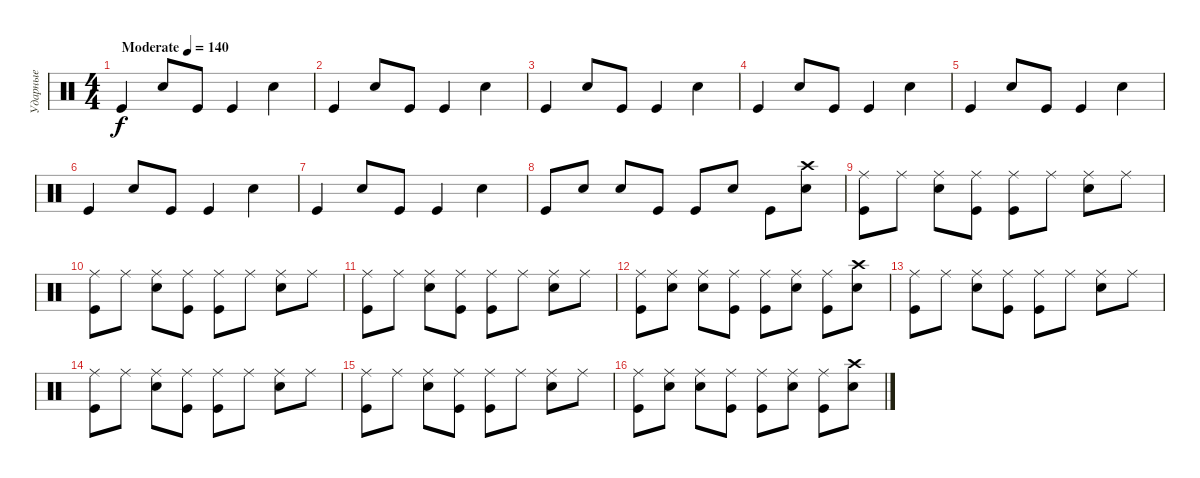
\track ("Ударные" "Ударные") {instrument percussion}
\staff {score}
\articulation defaults
\ts (4 4)
\tempo (140 "Moderate")
\clef neutral
\ks c "Kick (hit)".4{dy f} "Snare (hit) 2".8 "Kick (hit)".8 "Kick (hit)".4 "Snare (hit) 2".4
|
"Kick (hit)".4 "Snare (hit) 2".8 "Kick (hit)".8 "Kick (hit)".4 "Snare (hit) 2".4 |
"Kick (hit)".4 "Snare (hit) 2".8 "Kick (hit)".8 "Kick (hit)".4 "Snare (hit) 2".4 |
"Kick (hit)".4 "Snare (hit) 2".8 "Kick (hit)".8 "Kick (hit)".4 "Snare (hit) 2".4 |
"Kick (hit)".4 "Snare (hit) 2".8 "Kick (hit)".8 "Kick (hit)".4 "Snare (hit) 2".4 |
"Kick (hit)".4 "Snare (hit) 2".8 "Kick (hit)".8 "Kick (hit)".4 "Snare (hit) 2".4 |
"Kick (hit)".4 "Snare (hit) 2".8 "Kick (hit)".8 "Kick (hit)".4 "Snare (hit) 2".4 |
"Kick (hit)".8 "Snare (hit) 2".8 "Snare (hit) 2".8 "Kick (hit)".8 "Kick (hit)".8 "Snare (hit) 2".8 "Kick (hit)".8 ("Crash high (hit)" "Snare (hit) 2").8 |
("Kick (hit)" "Ride (middle)").8 "Ride (middle)".8 ("Snare (hit) 2" "Ride (middle)").8 ("Kick (hit)" "Ride (middle)").8 ("Kick (hit)" "Ride (middle)").8 "Ride (middle)".8 ("Snare (hit) 2" "Ride (middle)").8 "Ride (middle)".8 |
("Kick (hit)" "Ride (middle)").8 "Ride (middle)".8 ("Snare (hit) 2" "Ride (middle)").8 ("Kick (hit)" "Ride (middle)").8 ("Kick (hit)" "Ride (middle)").8 "Ride (middle)".8 ("Snare (hit) 2" "Ride (middle)").8 "Ride (middle)".8 |
("Kick (hit)" "Ride (middle)").8 "Ride (middle)".8 ("Snare (hit) 2" "Ride (middle)").8 ("Kick (hit)" "Ride (middle)").8 ("Kick (hit)" "Ride (middle)").8 "Ride (middle)".8 ("Snare (hit) 2" "Ride (middle)").8 "Ride (middle)".8 |
("Kick (hit)" "Ride (middle)").8 ("Snare (hit) 2" "Ride (middle)").8 ("Snare (hit) 2" "Ride (middle)").8 ("Kick (hit)" "Ride (middle)").8 ("Kick (hit)" "Ride (middle)").8 ("Snare (hit) 2" "Ride (middle)").8 ("Kick (hit)" "Ride (middle)").8 ("Crash high (hit)" "Snare (hit) 2").8 |
("Kick (hit)" "Ride (middle)").8 "Ride (middle)".8 ("Snare (hit) 2" "Ride (middle)").8 ("Kick (hit)" "Ride (middle)").8 ("Kick (hit)" "Ride (middle)").8 "Ride (middle)".8 ("Snare (hit) 2" "Ride (middle)").8 "Ride (middle)".8 |
("Kick (hit)" "Ride (middle)").8 "Ride (middle)".8 ("Snare (hit) 2" "Ride (middle)").8 ("Kick (hit)" "Ride (middle)").8 ("Kick (hit)" "Ride (middle)").8 "Ride (middle)".8 ("Snare (hit) 2" "Ride (middle)").8 "Ride (middle)".8 |
("Kick (hit)" "Ride (middle)").8 "Ride (middle)".8 ("Snare (hit) 2" "Ride (middle)").8 ("Kick (hit)" "Ride (middle)").8 ("Kick (hit)" "Ride (middle)").8 "Ride (middle)".8 ("Snare (hit) 2" "Ride (middle)").8 "Ride (middle)".8 |
("Kick (hit)" "Ride (middle)").8 ("Snare (hit) 2" "Ride (middle)").8 ("Snare (hit) 2" "Ride (middle)").8 ("Kick (hit)" "Ride (middle)").8 ("Kick (hit)" "Ride (middle)").8 ("Snare (hit) 2" "Ride (middle)").8 ("Kick (hit)" "Ride (middle)").8 ("Crash high (hit)" "Snare (hit) 2").8
